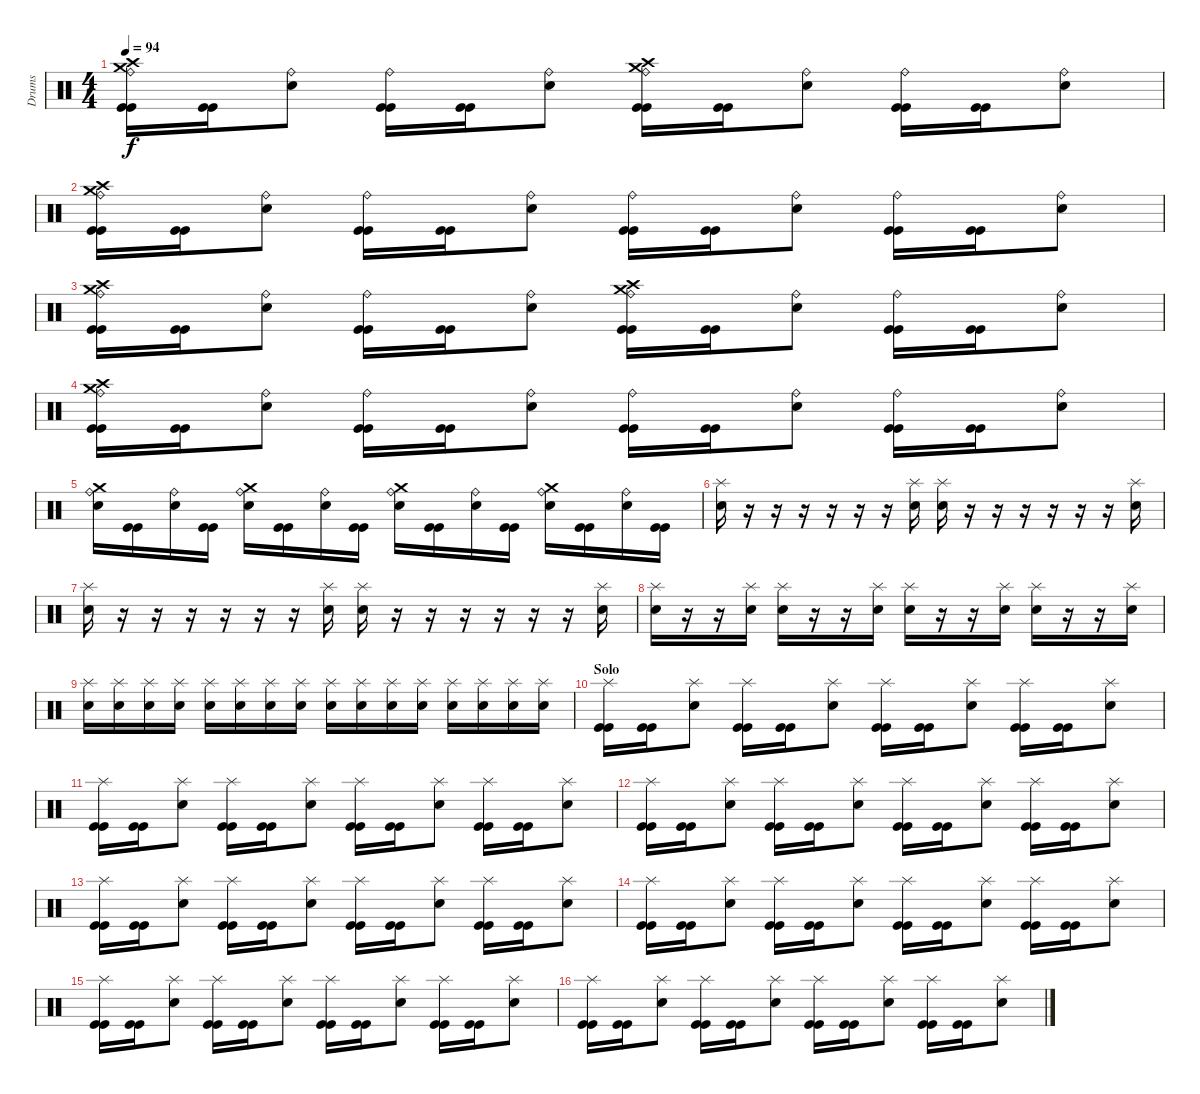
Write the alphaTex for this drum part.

\track ("Drums" "Drums") {instrument percussion}
\staff {score}
\articulation defaults
\ts (4 4)
\tempo 94
\clef neutral
\ks c
("Ride (bell)" "Crash high (hit)" "Crash medium (hit)" "Kick (hit)" "Kick (hit)").16{dy f} ("Kick (hit)" "Kick (hit)").16 ("Ride (bell)" "Snare (hit) 2").8 ("Ride (bell)" "Kick (hit)" "Kick (hit)").16 ("Kick (hit)" "Kick (hit)").16 ("Ride (bell)" "Snare (hit) 2").8 ("Ride (bell)" "Crash high (hit)" "Crash medium (hit)" "Kick (hit)" "Kick (hit)").16 ("Kick (hit)" "Kick (hit)").16 ("Ride (bell)" "Snare (hit) 2").8 ("Ride (bell)" "Kick (hit)" "Kick (hit)").16 ("Kick (hit)" "Kick (hit)").16 ("Ride (bell)" "Snare (hit) 2").8 |
("Ride (bell)" "Crash high (hit)" "Crash medium (hit)" "Kick (hit)" "Kick (hit)").16 ("Kick (hit)" "Kick (hit)").16 ("Ride (bell)" "Snare (hit) 2").8 ("Ride (bell)" "Kick (hit)" "Kick (hit)").16 ("Kick (hit)" "Kick (hit)").16 ("Ride (bell)" "Snare (hit) 2").8 ("Ride (bell)" "Kick (hit)" "Kick (hit)").16 ("Kick (hit)" "Kick (hit)").16 ("Ride (bell)" "Snare (hit) 2").8 ("Ride (bell)" "Kick (hit)" "Kick (hit)").16 ("Kick (hit)" "Kick (hit)").16 ("Ride (bell)" "Snare (hit) 2").8 |
("Ride (bell)" "Crash high (hit)" "Crash medium (hit)" "Kick (hit)" "Kick (hit)").16 ("Kick (hit)" "Kick (hit)").16 ("Ride (bell)" "Snare (hit) 2").8 ("Ride (bell)" "Kick (hit)" "Kick (hit)").16 ("Kick (hit)" "Kick (hit)").16 ("Ride (bell)" "Snare (hit) 2").8 ("Ride (bell)" "Crash high (hit)" "Crash medium (hit)" "Kick (hit)" "Kick (hit)").16 ("Kick (hit)" "Kick (hit)").16 ("Ride (bell)" "Snare (hit) 2").8 ("Ride (bell)" "Kick (hit)" "Kick (hit)").16 ("Kick (hit)" "Kick (hit)").16 ("Ride (bell)" "Snare (hit) 2").8 |
("Ride (bell)" "Crash high (hit)" "Crash medium (hit)" "Kick (hit)" "Kick (hit)").16 ("Kick (hit)" "Kick (hit)").16 ("Ride (bell)" "Snare (hit) 2").8 ("Ride (bell)" "Kick (hit)" "Kick (hit)").16 ("Kick (hit)" "Kick (hit)").16 ("Ride (bell)" "Snare (hit) 2").8 ("Ride (bell)" "Kick (hit)" "Kick (hit)").16 ("Kick (hit)" "Kick (hit)").16 ("Ride (bell)" "Snare (hit) 2").8 ("Ride (bell)" "Kick (hit)" "Kick (hit)").16 ("Kick (hit)" "Kick (hit)").16 ("Ride (bell)" "Snare (hit) 2").8 |
("Ride (bell)" "Snare (hit) 2" "Crash medium (hit)").16 ("Kick (hit)" "Kick (hit)").16 ("Ride (bell)" "Snare (hit) 2").16 ("Kick (hit)" "Kick (hit)").16 ("Ride (bell)" "Snare (hit) 2" "Crash medium (hit)").16 ("Kick (hit)" "Kick (hit)").16 ("Ride (bell)" "Snare (hit) 2").16 ("Kick (hit)" "Kick (hit)").16 ("Ride (bell)" "Snare (hit) 2" "Crash medium (hit)").16 ("Kick (hit)" "Kick (hit)").16 ("Ride (bell)" "Snare (hit) 2").16 ("Kick (hit)" "Kick (hit)").16 ("Ride (bell)" "Snare (hit) 2" "Crash medium (hit)").16 ("Kick (hit)" "Kick (hit)").16 ("Ride (bell)" "Snare (hit) 2").16 ("Kick (hit)" "Kick (hit)").16 |
("Splash (hit)" "Snare (hit) 2").16 r.16 r.16 r.16 r.16 r.16 r.16 ("Splash (hit)" "Snare (hit) 2").16 ("Splash (hit)" "Snare (hit) 2").16 r.16 r.16 r.16 r.16 r.16 r.16 ("Splash (hit)" "Snare (hit) 2").16 |
("Splash (hit)" "Snare (hit) 2").16 r.16 r.16 r.16 r.16 r.16 r.16 ("Splash (hit)" "Snare (hit) 2").16 ("Splash (hit)" "Snare (hit) 2").16 r.16 r.16 r.16 r.16 r.16 r.16 ("Splash (hit)" "Snare (hit) 2").16 |
("Splash (hit)" "Snare (hit) 2").16 r.16 r.16 ("Splash (hit)" "Snare (hit) 2").16 ("Splash (hit)" "Snare (hit) 2").16 r.16 r.16 ("Splash (hit)" "Snare (hit) 2").16 ("Splash (hit)" "Snare (hit) 2").16 r.16 r.16 ("Splash (hit)" "Snare (hit) 2").16 ("Splash (hit)" "Snare (hit) 2").16 r.16 r.16 ("Splash (hit)" "Snare (hit) 2").16 |
("Splash (hit)" "Snare (hit) 2").16 ("Splash (hit)" "Snare (hit) 2").16 ("Splash (hit)" "Snare (hit) 2").16 ("Splash (hit)" "Snare (hit) 2").16 ("Splash (hit)" "Snare (hit) 2").16 ("Splash (hit)" "Snare (hit) 2").16 ("Splash (hit)" "Snare (hit) 2").16 ("Splash (hit)" "Snare (hit) 2").16 ("Splash (hit)" "Snare (hit) 2").16 ("Splash (hit)" "Snare (hit) 2").16 ("Splash (hit)" "Snare (hit) 2").16 ("Splash (hit)" "Snare (hit) 2").16 ("Splash (hit)" "Snare (hit) 2").16 ("Splash (hit)" "Snare (hit) 2").16 ("Splash (hit)" "Snare (hit) 2").16 ("Splash (hit)" "Snare (hit) 2").16 |
\section ("" "Solo")
("Splash (hit)" "Kick (hit)" "Kick (hit)").16 ("Kick (hit)" "Kick (hit)").16 ("Splash (hit)" "Snare (hit) 2").8 ("Splash (hit)" "Kick (hit)" "Kick (hit)").16 ("Kick (hit)" "Kick (hit)").16 ("Splash (hit)" "Snare (hit) 2").8 ("Splash (hit)" "Kick (hit)" "Kick (hit)").16 ("Kick (hit)" "Kick (hit)").16 ("Splash (hit)" "Snare (hit) 2").8 ("Splash (hit)" "Kick (hit)" "Kick (hit)").16 ("Kick (hit)" "Kick (hit)").16 ("Splash (hit)" "Snare (hit) 2").8 |
("Splash (hit)" "Kick (hit)" "Kick (hit)").16 ("Kick (hit)" "Kick (hit)").16 ("Splash (hit)" "Snare (hit) 2").8 ("Splash (hit)" "Kick (hit)" "Kick (hit)").16 ("Kick (hit)" "Kick (hit)").16 ("Splash (hit)" "Snare (hit) 2").8 ("Splash (hit)" "Kick (hit)" "Kick (hit)").16 ("Kick (hit)" "Kick (hit)").16 ("Splash (hit)" "Snare (hit) 2").8 ("Splash (hit)" "Kick (hit)" "Kick (hit)").16 ("Kick (hit)" "Kick (hit)").16 ("Splash (hit)" "Snare (hit) 2").8 |
("Splash (hit)" "Kick (hit)" "Kick (hit)").16 ("Kick (hit)" "Kick (hit)").16 ("Splash (hit)" "Snare (hit) 2").8 ("Splash (hit)" "Kick (hit)" "Kick (hit)").16 ("Kick (hit)" "Kick (hit)").16 ("Splash (hit)" "Snare (hit) 2").8 ("Splash (hit)" "Kick (hit)" "Kick (hit)").16 ("Kick (hit)" "Kick (hit)").16 ("Splash (hit)" "Snare (hit) 2").8 ("Splash (hit)" "Kick (hit)" "Kick (hit)").16 ("Kick (hit)" "Kick (hit)").16 ("Splash (hit)" "Snare (hit) 2").8 |
("Splash (hit)" "Kick (hit)" "Kick (hit)").16 ("Kick (hit)" "Kick (hit)").16 ("Splash (hit)" "Snare (hit) 2").8 ("Splash (hit)" "Kick (hit)" "Kick (hit)").16 ("Kick (hit)" "Kick (hit)").16 ("Splash (hit)" "Snare (hit) 2").8 ("Splash (hit)" "Kick (hit)" "Kick (hit)").16 ("Kick (hit)" "Kick (hit)").16 ("Splash (hit)" "Snare (hit) 2").8 ("Splash (hit)" "Kick (hit)" "Kick (hit)").16 ("Kick (hit)" "Kick (hit)").16 ("Splash (hit)" "Snare (hit) 2").8 |
("Splash (hit)" "Kick (hit)" "Kick (hit)").16 ("Kick (hit)" "Kick (hit)").16 ("Splash (hit)" "Snare (hit) 2").8 ("Splash (hit)" "Kick (hit)" "Kick (hit)").16 ("Kick (hit)" "Kick (hit)").16 ("Splash (hit)" "Snare (hit) 2").8 ("Splash (hit)" "Kick (hit)" "Kick (hit)").16 ("Kick (hit)" "Kick (hit)").16 ("Splash (hit)" "Snare (hit) 2").8 ("Splash (hit)" "Kick (hit)" "Kick (hit)").16 ("Kick (hit)" "Kick (hit)").16 ("Splash (hit)" "Snare (hit) 2").8 |
("Splash (hit)" "Kick (hit)" "Kick (hit)").16 ("Kick (hit)" "Kick (hit)").16 ("Splash (hit)" "Snare (hit) 2").8 ("Splash (hit)" "Kick (hit)" "Kick (hit)").16 ("Kick (hit)" "Kick (hit)").16 ("Splash (hit)" "Snare (hit) 2").8 ("Splash (hit)" "Kick (hit)" "Kick (hit)").16 ("Kick (hit)" "Kick (hit)").16 ("Splash (hit)" "Snare (hit) 2").8 ("Splash (hit)" "Kick (hit)" "Kick (hit)").16 ("Kick (hit)" "Kick (hit)").16 ("Splash (hit)" "Snare (hit) 2").8 |
("Splash (hit)" "Kick (hit)" "Kick (hit)").16 ("Kick (hit)" "Kick (hit)").16 ("Splash (hit)" "Snare (hit) 2").8 ("Splash (hit)" "Kick (hit)" "Kick (hit)").16 ("Kick (hit)" "Kick (hit)").16 ("Splash (hit)" "Snare (hit) 2").8 ("Splash (hit)" "Kick (hit)" "Kick (hit)").16 ("Kick (hit)" "Kick (hit)").16 ("Splash (hit)" "Snare (hit) 2").8 ("Splash (hit)" "Kick (hit)" "Kick (hit)").16 ("Kick (hit)" "Kick (hit)").16 ("Splash (hit)" "Snare (hit) 2").8
